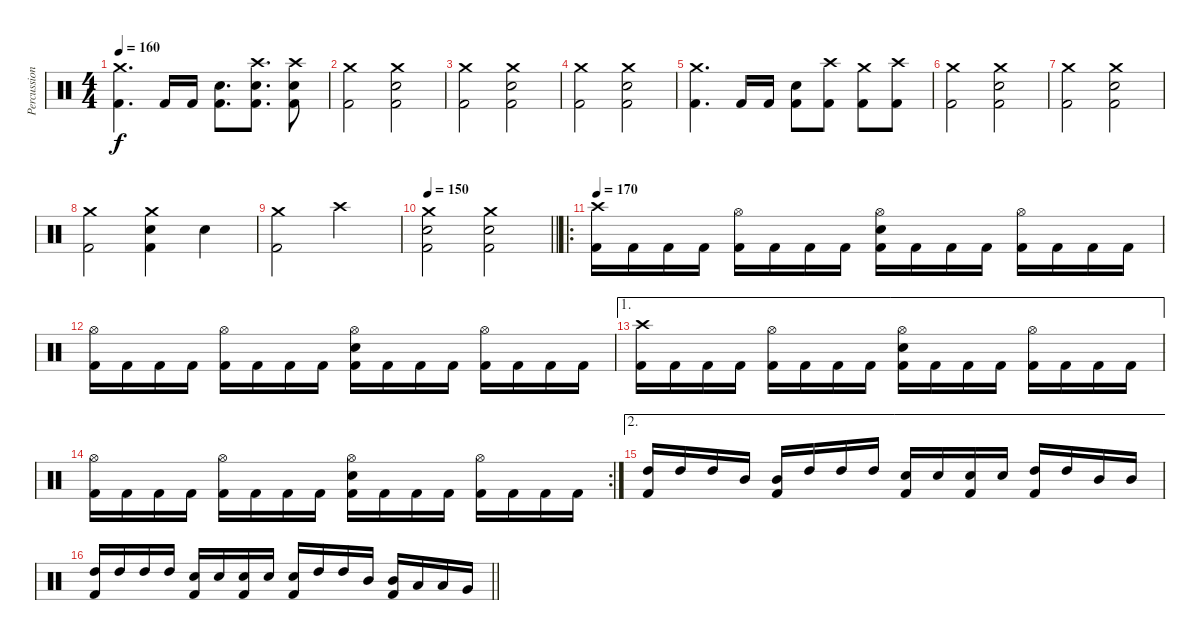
\track ("Percussion" "Percussion") {instrument percussion}
\staff {score}
\articulation defaults
\ts (4 4)
\tempo 160
\clef neutral
\ks c
("Crash medium (hit)" "Kick (hit) 2").4{d dy f} "Kick (hit) 2".16 "Kick (hit) 2".16 ("Electric Snare (hit)" "Kick (hit) 2").8{d} ("Crash high (hit)" "Electric Snare (hit)" "Kick (hit) 2").8{d} ("Crash high (hit)" "Electric Snare (hit)" "Kick (hit) 2").8 |
("Crash medium (hit)" "Kick (hit) 2").2 ("Crash medium (hit)" "Electric Snare (hit)" "Kick (hit) 2").2 |
("Crash medium (hit)" "Kick (hit) 2").2 ("Crash medium (hit)" "Electric Snare (hit)" "Kick (hit) 2").2 |
("Crash medium (hit)" "Kick (hit) 2").2 ("Crash medium (hit)" "Electric Snare (hit)" "Kick (hit) 2").2 |
("Crash medium (hit)" "Kick (hit) 2").4{d} "Kick (hit) 2".16 "Kick (hit) 2".16 ("Electric Snare (hit)" "Kick (hit) 2").8 ("Crash high (hit)" "Kick (hit) 2").8 ("Crash medium (hit)" "Kick (hit) 2").8 ("Crash high (hit)" "Kick (hit) 2").8 |
("Crash medium (hit)" "Kick (hit) 2").2 ("Crash medium (hit)" "Electric Snare (hit)" "Kick (hit) 2").2 |
("Crash medium (hit)" "Kick (hit) 2").2 ("Crash medium (hit)" "Electric Snare (hit)" "Kick (hit) 2").2 |
("Crash medium (hit)" "Kick (hit) 2").2 ("Crash medium (hit)" "Electric Snare (hit)" "Kick (hit) 2").4 "Electric Snare (hit)".4 |
("Crash medium (hit)" "Kick (hit) 2").2 "Crash high (hit)".2 |
\tempo 150
\barLineRight lightlight
("Crash medium (hit)" "Electric Snare (hit)" "Kick (hit) 2").2 ("Crash medium (hit)" "Electric Snare (hit)" "Kick (hit) 2").2 |
\ro
\section ("" "")
\tempo 170
("Crash high (hit)" "Kick (hit) 2").16 "Kick (hit) 2".16 "Kick (hit) 2".16 "Kick (hit) 2".16 ("Hi-Hat (open)" "Kick (hit) 2").16 "Kick (hit) 2".16 "Kick (hit) 2".16 "Kick (hit) 2".16 ("Hi-Hat (open)" "Electric Snare (hit)" "Kick (hit) 2").16 "Kick (hit) 2".16 "Kick (hit) 2".16 "Kick (hit) 2".16 ("Hi-Hat (open)" "Kick (hit) 2").16 "Kick (hit) 2".16 "Kick (hit) 2".16 "Kick (hit) 2".16 |
("Hi-Hat (open)" "Kick (hit) 2").16 "Kick (hit) 2".16 "Kick (hit) 2".16 "Kick (hit) 2".16 ("Hi-Hat (open)" "Kick (hit) 2").16 "Kick (hit) 2".16 "Kick (hit) 2".16 "Kick (hit) 2".16 ("Hi-Hat (open)" "Electric Snare (hit)" "Kick (hit) 2").16 "Kick (hit) 2".16 "Kick (hit) 2".16 "Kick (hit) 2".16 ("Hi-Hat (open)" "Kick (hit) 2").16 "Kick (hit) 2".16 "Kick (hit) 2".16 "Kick (hit) 2".16 |
\ae 1
("Crash high (hit)" "Kick (hit) 2").16 "Kick (hit) 2".16 "Kick (hit) 2".16 "Kick (hit) 2".16 ("Hi-Hat (open)" "Kick (hit) 2").16 "Kick (hit) 2".16 "Kick (hit) 2".16 "Kick (hit) 2".16 ("Hi-Hat (open)" "Electric Snare (hit)" "Kick (hit) 2").16 "Kick (hit) 2".16 "Kick (hit) 2".16 "Kick (hit) 2".16 ("Hi-Hat (open)" "Kick (hit) 2").16 "Kick (hit) 2".16 "Kick (hit) 2".16 "Kick (hit) 2".16 |
\rc 2
("Hi-Hat (open)" "Kick (hit) 2").16 "Kick (hit) 2".16 "Kick (hit) 2".16 "Kick (hit) 2".16 ("Hi-Hat (open)" "Kick (hit) 2").16 "Kick (hit) 2".16 "Kick (hit) 2".16 "Kick (hit) 2".16 ("Hi-Hat (open)" "Electric Snare (hit)" "Kick (hit) 2").16 "Kick (hit) 2".16 "Kick (hit) 2".16 "Kick (hit) 2".16 ("Hi-Hat (open)" "Kick (hit) 2").16 "Kick (hit) 2".16 "Kick (hit) 2".16 "Kick (hit) 2".16 |
\ae 2
("High Tom (hit)" "Kick (hit) 2").16 "High Tom (hit)".16 "High Tom (hit)".16 "Mid Tom (hit)".16 ("Mid Tom (hit)" "Kick (hit) 2").16 "High Tom (hit)".16 "High Tom (hit)".16 "High Tom (hit)".16 ("Electric Snare (hit)" "Kick (hit) 2").16 "Electric Snare (hit)".16 ("Electric Snare (hit)" "Kick (hit) 2").16 "Electric Snare (hit)".16 ("High Tom (hit)" "Kick (hit) 2").16 "High Tom (hit)".16 "Mid Tom (hit)".16 "Mid Tom (hit)".16 |
\barLineRight lightlight
("High Tom (hit)" "Kick (hit) 2").16 "High Tom (hit)".16 "High Tom (hit)".16 "High Tom (hit)".16 ("Electric Snare (hit)" "Kick (hit) 2").16 "Electric Snare (hit)".16 ("Electric Snare (hit)" "Kick (hit) 2").16 "Electric Snare (hit)".16 ("Electric Snare (hit)" "Kick (hit) 2").16 "High Tom (hit)".16 "High Tom (hit)".16 "Mid Tom (hit)".16 ("Mid Tom (hit)" "Kick (hit) 2").16 "Low Tom (hit)".16 "Low Tom (hit)".16 "Very Low Tom (hit)".16
